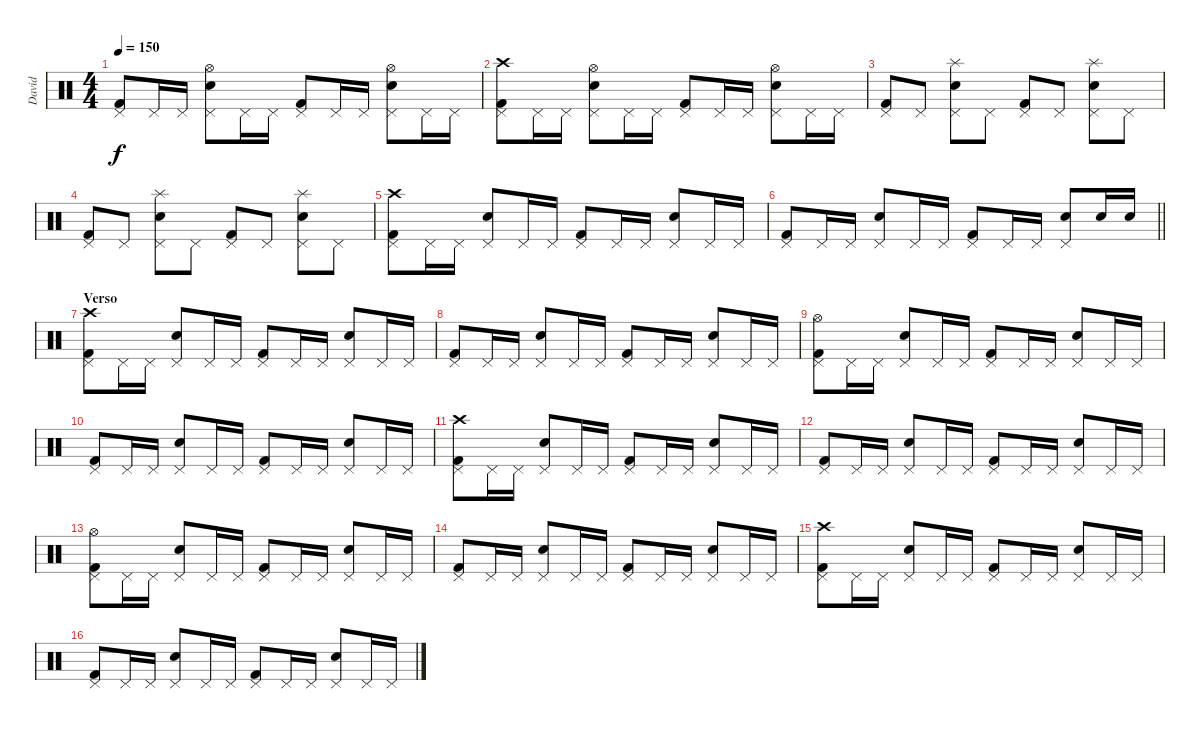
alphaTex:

\track ("David" "David") {instrument percussion}
\staff {score}
\articulation defaults
\ts (4 4)
\tempo 150
\clef neutral
\ks c
("Kick (hit) 2" "Pedal Hi-Hat (hit)").8{dy f} "Pedal Hi-Hat (hit)".16 "Pedal Hi-Hat (hit)".16 ("Snare (hit) 2" "Pedal Hi-Hat (hit)" "Hi-Hat (open)").8 "Pedal Hi-Hat (hit)".16 "Pedal Hi-Hat (hit)".16 ("Kick (hit) 2" "Pedal Hi-Hat (hit)").8 "Pedal Hi-Hat (hit)".16 "Pedal Hi-Hat (hit)".16 ("Snare (hit) 2" "Pedal Hi-Hat (hit)" "Hi-Hat (open)").8 "Pedal Hi-Hat (hit)".16 "Pedal Hi-Hat (hit)".16 |
("Kick (hit) 2" "Pedal Hi-Hat (hit)" "Crash high (hit)").8 "Pedal Hi-Hat (hit)".16 "Pedal Hi-Hat (hit)".16 ("Snare (hit) 2" "Pedal Hi-Hat (hit)" "Hi-Hat (open)").8 "Pedal Hi-Hat (hit)".16 "Pedal Hi-Hat (hit)".16 ("Kick (hit) 2" "Pedal Hi-Hat (hit)").8 "Pedal Hi-Hat (hit)".16 "Pedal Hi-Hat (hit)".16 ("Snare (hit) 2" "Pedal Hi-Hat (hit)" "Hi-Hat (open)").8 "Pedal Hi-Hat (hit)".16 "Pedal Hi-Hat (hit)".16 |
("Kick (hit) 2" "Pedal Hi-Hat (hit)").8 "Pedal Hi-Hat (hit)".8 ("Snare (hit) 2" "Pedal Hi-Hat (hit)" "Splash (hit)").8 "Pedal Hi-Hat (hit)".8 ("Kick (hit) 2" "Pedal Hi-Hat (hit)").8 "Pedal Hi-Hat (hit)".8 ("Snare (hit) 2" "Pedal Hi-Hat (hit)" "Splash (hit)").8 "Pedal Hi-Hat (hit)".8 |
("Kick (hit) 2" "Pedal Hi-Hat (hit)").8 "Pedal Hi-Hat (hit)".8 ("Snare (hit) 2" "Pedal Hi-Hat (hit)" "Splash (hit)").8 "Pedal Hi-Hat (hit)".8 ("Kick (hit) 2" "Pedal Hi-Hat (hit)").8 "Pedal Hi-Hat (hit)".8 ("Snare (hit) 2" "Pedal Hi-Hat (hit)" "Splash (hit)").8 "Pedal Hi-Hat (hit)".8 |
("Kick (hit) 2" "Pedal Hi-Hat (hit)" "Crash high (hit)").8 "Pedal Hi-Hat (hit)".16 "Pedal Hi-Hat (hit)".16 ("Snare (hit) 2" "Pedal Hi-Hat (hit)").8 "Pedal Hi-Hat (hit)".16 "Pedal Hi-Hat (hit)".16 ("Kick (hit) 2" "Pedal Hi-Hat (hit)").8 "Pedal Hi-Hat (hit)".16 "Pedal Hi-Hat (hit)".16 ("Snare (hit) 2" "Pedal Hi-Hat (hit)").8 "Pedal Hi-Hat (hit)".16 "Pedal Hi-Hat (hit)".16 |
\barLineRight lightlight
("Kick (hit) 2" "Pedal Hi-Hat (hit)").8 "Pedal Hi-Hat (hit)".16 "Pedal Hi-Hat (hit)".16 ("Snare (hit) 2" "Pedal Hi-Hat (hit)").8 "Pedal Hi-Hat (hit)".16 "Pedal Hi-Hat (hit)".16 ("Kick (hit) 2" "Pedal Hi-Hat (hit)").8 "Pedal Hi-Hat (hit)".16 "Pedal Hi-Hat (hit)".16 ("Snare (hit) 2" "Pedal Hi-Hat (hit)").8 "Snare (hit) 2".16 "Snare (hit) 2".16 |
\section ("" "Verso")
("Kick (hit) 2" "Pedal Hi-Hat (hit)" "Crash high (hit)").8 "Pedal Hi-Hat (hit)".16 "Pedal Hi-Hat (hit)".16 ("Snare (hit) 2" "Pedal Hi-Hat (hit)").8 "Pedal Hi-Hat (hit)".16 "Pedal Hi-Hat (hit)".16 ("Kick (hit) 2" "Pedal Hi-Hat (hit)").8 "Pedal Hi-Hat (hit)".16 "Pedal Hi-Hat (hit)".16 ("Snare (hit) 2" "Pedal Hi-Hat (hit)").8 "Pedal Hi-Hat (hit)".16 "Pedal Hi-Hat (hit)".16 |
("Kick (hit) 2" "Pedal Hi-Hat (hit)").8 "Pedal Hi-Hat (hit)".16 "Pedal Hi-Hat (hit)".16 ("Snare (hit) 2" "Pedal Hi-Hat (hit)").8 "Pedal Hi-Hat (hit)".16 "Pedal Hi-Hat (hit)".16 ("Kick (hit) 2" "Pedal Hi-Hat (hit)").8 "Pedal Hi-Hat (hit)".16 "Pedal Hi-Hat (hit)".16 ("Snare (hit) 2" "Pedal Hi-Hat (hit)").8 "Pedal Hi-Hat (hit)".16 "Pedal Hi-Hat (hit)".16 |
("Kick (hit) 2" "Pedal Hi-Hat (hit)" "Hi-Hat (open)").8 "Pedal Hi-Hat (hit)".16 "Pedal Hi-Hat (hit)".16 ("Snare (hit) 2" "Pedal Hi-Hat (hit)").8 "Pedal Hi-Hat (hit)".16 "Pedal Hi-Hat (hit)".16 ("Kick (hit) 2" "Pedal Hi-Hat (hit)").8 "Pedal Hi-Hat (hit)".16 "Pedal Hi-Hat (hit)".16 ("Snare (hit) 2" "Pedal Hi-Hat (hit)").8 "Pedal Hi-Hat (hit)".16 "Pedal Hi-Hat (hit)".16 |
("Kick (hit) 2" "Pedal Hi-Hat (hit)").8 "Pedal Hi-Hat (hit)".16 "Pedal Hi-Hat (hit)".16 ("Snare (hit) 2" "Pedal Hi-Hat (hit)").8 "Pedal Hi-Hat (hit)".16 "Pedal Hi-Hat (hit)".16 ("Kick (hit) 2" "Pedal Hi-Hat (hit)").8 "Pedal Hi-Hat (hit)".16 "Pedal Hi-Hat (hit)".16 ("Snare (hit) 2" "Pedal Hi-Hat (hit)").8 "Pedal Hi-Hat (hit)".16 "Pedal Hi-Hat (hit)".16 |
("Kick (hit) 2" "Pedal Hi-Hat (hit)" "Crash high (hit)").8 "Pedal Hi-Hat (hit)".16 "Pedal Hi-Hat (hit)".16 ("Snare (hit) 2" "Pedal Hi-Hat (hit)").8 "Pedal Hi-Hat (hit)".16 "Pedal Hi-Hat (hit)".16 ("Kick (hit) 2" "Pedal Hi-Hat (hit)").8 "Pedal Hi-Hat (hit)".16 "Pedal Hi-Hat (hit)".16 ("Snare (hit) 2" "Pedal Hi-Hat (hit)").8 "Pedal Hi-Hat (hit)".16 "Pedal Hi-Hat (hit)".16 |
("Kick (hit) 2" "Pedal Hi-Hat (hit)").8 "Pedal Hi-Hat (hit)".16 "Pedal Hi-Hat (hit)".16 ("Snare (hit) 2" "Pedal Hi-Hat (hit)").8 "Pedal Hi-Hat (hit)".16 "Pedal Hi-Hat (hit)".16 ("Kick (hit) 2" "Pedal Hi-Hat (hit)").8 "Pedal Hi-Hat (hit)".16 "Pedal Hi-Hat (hit)".16 ("Snare (hit) 2" "Pedal Hi-Hat (hit)").8 "Pedal Hi-Hat (hit)".16 "Pedal Hi-Hat (hit)".16 |
("Kick (hit) 2" "Pedal Hi-Hat (hit)" "Hi-Hat (open)").8 "Pedal Hi-Hat (hit)".16 "Pedal Hi-Hat (hit)".16 ("Snare (hit) 2" "Pedal Hi-Hat (hit)").8 "Pedal Hi-Hat (hit)".16 "Pedal Hi-Hat (hit)".16 ("Kick (hit) 2" "Pedal Hi-Hat (hit)").8 "Pedal Hi-Hat (hit)".16 "Pedal Hi-Hat (hit)".16 ("Snare (hit) 2" "Pedal Hi-Hat (hit)").8 "Pedal Hi-Hat (hit)".16 "Pedal Hi-Hat (hit)".16 |
("Kick (hit) 2" "Pedal Hi-Hat (hit)").8 "Pedal Hi-Hat (hit)".16 "Pedal Hi-Hat (hit)".16 ("Snare (hit) 2" "Pedal Hi-Hat (hit)").8 "Pedal Hi-Hat (hit)".16 "Pedal Hi-Hat (hit)".16 ("Kick (hit) 2" "Pedal Hi-Hat (hit)").8 "Pedal Hi-Hat (hit)".16 "Pedal Hi-Hat (hit)".16 ("Snare (hit) 2" "Pedal Hi-Hat (hit)").8 "Pedal Hi-Hat (hit)".16 "Pedal Hi-Hat (hit)".16 |
("Kick (hit) 2" "Pedal Hi-Hat (hit)" "Crash high (hit)").8 "Pedal Hi-Hat (hit)".16 "Pedal Hi-Hat (hit)".16 ("Snare (hit) 2" "Pedal Hi-Hat (hit)").8 "Pedal Hi-Hat (hit)".16 "Pedal Hi-Hat (hit)".16 ("Kick (hit) 2" "Pedal Hi-Hat (hit)").8 "Pedal Hi-Hat (hit)".16 "Pedal Hi-Hat (hit)".16 ("Snare (hit) 2" "Pedal Hi-Hat (hit)").8 "Pedal Hi-Hat (hit)".16 "Pedal Hi-Hat (hit)".16 |
("Kick (hit) 2" "Pedal Hi-Hat (hit)").8 "Pedal Hi-Hat (hit)".16 "Pedal Hi-Hat (hit)".16 ("Snare (hit) 2" "Pedal Hi-Hat (hit)").8 "Pedal Hi-Hat (hit)".16 "Pedal Hi-Hat (hit)".16 ("Kick (hit) 2" "Pedal Hi-Hat (hit)").8 "Pedal Hi-Hat (hit)".16 "Pedal Hi-Hat (hit)".16 ("Snare (hit) 2" "Pedal Hi-Hat (hit)").8 "Pedal Hi-Hat (hit)".16 "Pedal Hi-Hat (hit)".16
